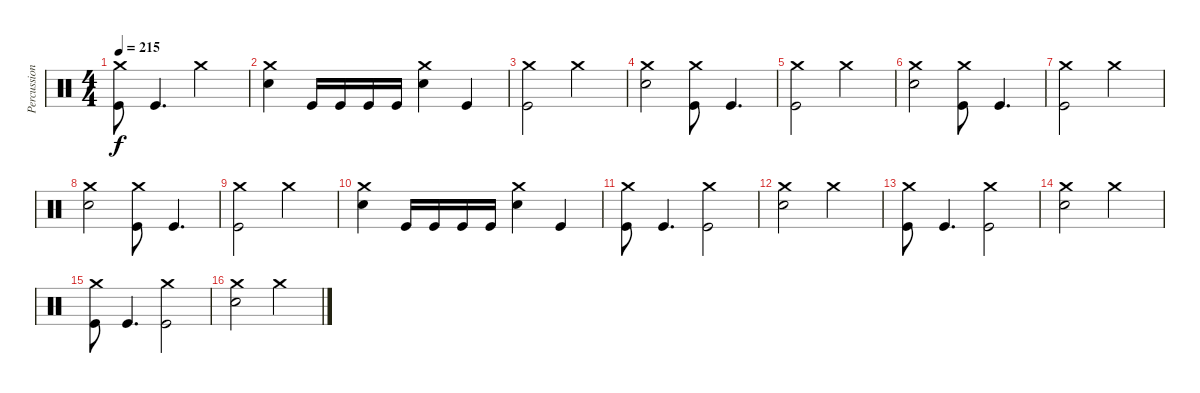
\track ("Percussion" "Percussion") {instrument percussion}
\staff {score}
\articulation defaults
\ts (4 4)
\tempo 215
\clef neutral
\ks c
("Crash medium (hit)" "Kick (hit)").8{dy f} "Kick (hit)".4{d} "Crash medium (hit)".2 |
("Crash medium (hit)" "Electric Snare (hit)").4 "Kick (hit)".16 "Kick (hit)".16 "Kick (hit)".16 "Kick (hit)".16 ("Crash medium (hit)" "Electric Snare (hit)").4 "Kick (hit)".4 |
("Crash medium (hit)" "Kick (hit)").2 "Crash medium (hit)".2 |
("Crash medium (hit)" "Electric Snare (hit)").2 ("Crash medium (hit)" "Kick (hit)").8 "Kick (hit)".4{d} |
("Crash medium (hit)" "Kick (hit)").2 "Crash medium (hit)".2 |
("Crash medium (hit)" "Electric Snare (hit)").2 ("Crash medium (hit)" "Kick (hit)").8 "Kick (hit)".4{d} |
("Crash medium (hit)" "Kick (hit)").2 "Crash medium (hit)".2 |
("Crash medium (hit)" "Electric Snare (hit)").2 ("Crash medium (hit)" "Kick (hit)").8 "Kick (hit)".4{d} |
("Crash medium (hit)" "Kick (hit)").2 "Crash medium (hit)".2 |
("Crash medium (hit)" "Electric Snare (hit)").4 "Kick (hit)".16 "Kick (hit)".16 "Kick (hit)".16 "Kick (hit)".16 ("Crash medium (hit)" "Electric Snare (hit)").4 "Kick (hit)".4 |
("Crash medium (hit)" "Kick (hit)").8 "Kick (hit)".4{d} ("Crash medium (hit)" "Kick (hit)").2 |
("Crash medium (hit)" "Electric Snare (hit)").2 "Crash medium (hit)".2 |
("Crash medium (hit)" "Kick (hit)").8 "Kick (hit)".4{d} ("Crash medium (hit)" "Kick (hit)").2 |
("Crash medium (hit)" "Electric Snare (hit)").2 "Crash medium (hit)".2 |
("Crash medium (hit)" "Kick (hit)").8 "Kick (hit)".4{d} ("Crash medium (hit)" "Kick (hit)").2 |
("Crash medium (hit)" "Electric Snare (hit)").2 "Crash medium (hit)".2
